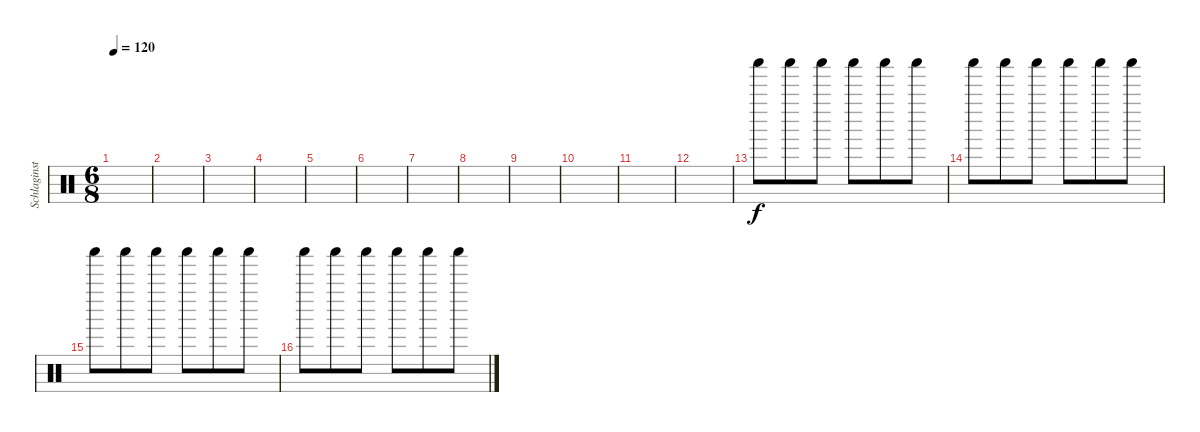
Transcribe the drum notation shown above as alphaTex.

\track ("Schlaginstrumente - Auswahl" "Schlaginst") {instrument percussion}
\staff {score}
\articulation defaults
\ts (6 8)
\tempo 120
\clef neutral
\ks c
|
|
|
|
|
|
|
|
|
|
|
|
"Shaker (hit)".8 "Shaker (hit)".8 "Shaker (hit)".8 "Shaker (hit)".8 "Shaker (hit)".8 "Shaker (hit)".8 |
"Shaker (hit)".8 "Shaker (hit)".8 "Shaker (hit)".8 "Shaker (hit)".8 "Shaker (hit)".8 "Shaker (hit)".8 |
"Shaker (hit)".8 "Shaker (hit)".8 "Shaker (hit)".8 "Shaker (hit)".8 "Shaker (hit)".8 "Shaker (hit)".8 |
"Shaker (hit)".8 "Shaker (hit)".8 "Shaker (hit)".8 "Shaker (hit)".8 "Shaker (hit)".8 "Shaker (hit)".8
